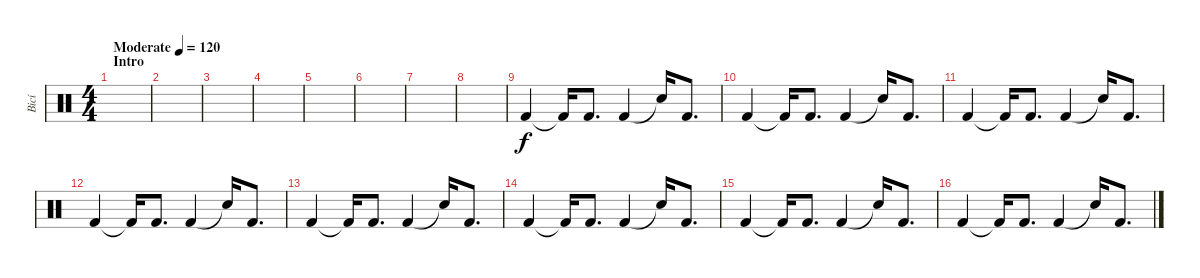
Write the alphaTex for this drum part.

\track ("Bicí" "Bicí") {instrument percussion}
\staff {score}
\articulation defaults
\ts (4 4)
\section ("" "Intro")
\tempo (120 "Moderate")
\clef neutral
\ks c
|
|
|
|
|
|
|
|
"Kick (hit) 2".4 "Kick (hit) 2"{t}.16 "Kick (hit) 2".8{d} "Kick (hit) 2".4 "Snare (hit)"{t}.16 "Kick (hit) 2".8{d} |
"Kick (hit) 2".4 "Kick (hit) 2"{t}.16 "Kick (hit) 2".8{d} "Kick (hit) 2".4 "Snare (hit)"{t}.16 "Kick (hit) 2".8{d} |
"Kick (hit) 2".4 "Kick (hit) 2"{t}.16 "Kick (hit) 2".8{d} "Kick (hit) 2".4 "Snare (hit)"{t}.16 "Kick (hit) 2".8{d} |
"Kick (hit) 2".4 "Kick (hit) 2"{t}.16 "Kick (hit) 2".8{d} "Kick (hit) 2".4 "Snare (hit)"{t}.16 "Kick (hit) 2".8{d} |
"Kick (hit) 2".4 "Kick (hit) 2"{t}.16 "Kick (hit) 2".8{d} "Kick (hit) 2".4 "Snare (hit)"{t}.16 "Kick (hit) 2".8{d} |
"Kick (hit) 2".4 "Kick (hit) 2"{t}.16 "Kick (hit) 2".8{d} "Kick (hit) 2".4 "Snare (hit)"{t}.16 "Kick (hit) 2".8{d} |
"Kick (hit) 2".4 "Kick (hit) 2"{t}.16 "Kick (hit) 2".8{d} "Kick (hit) 2".4 "Snare (hit)"{t}.16 "Kick (hit) 2".8{d} |
"Kick (hit) 2".4 "Kick (hit) 2"{t}.16 "Kick (hit) 2".8{d} "Kick (hit) 2".4 "Snare (hit)"{t}.16 "Kick (hit) 2".8{d}
